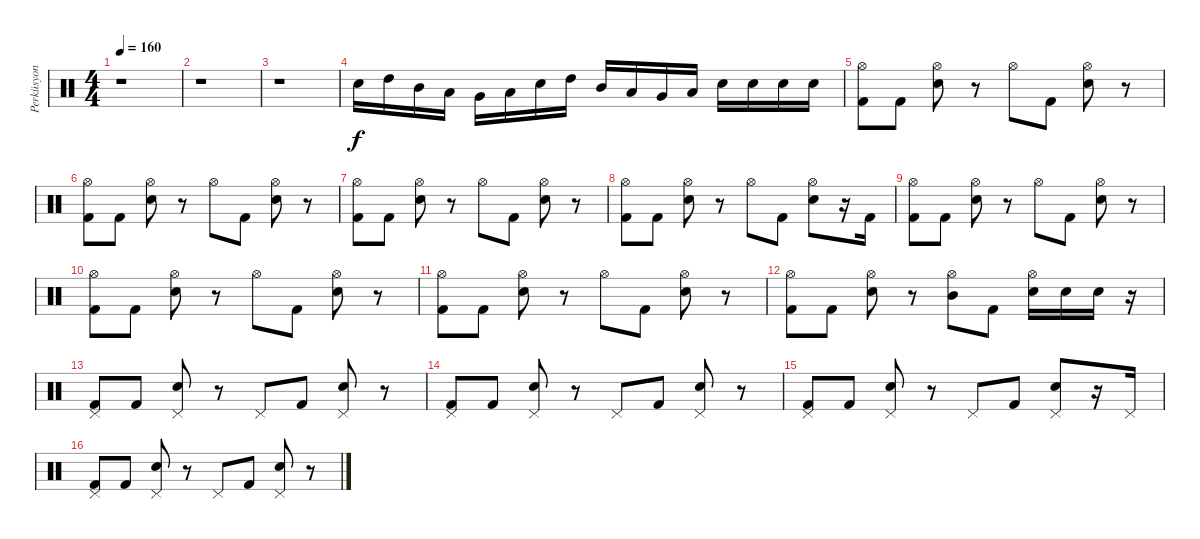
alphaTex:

\track ("Perküsyon" "Perküsyon") {instrument percussion}
\staff {score}
\articulation defaults
\ts (4 4)
\tempo 160
\clef neutral
\ks c
r.1{dy f} |
r.1 |
r.1 |
"Electric Snare (hit)".16 "High Tom (hit)".16 "Mid Tom (hit)".16 "Low Tom (hit)".16 "Very Low Tom (hit)".16 "Low Floor Tom (hit)".16 "Electric Snare (hit)".16 "High Tom (hit)".16 "Mid Tom (hit)".16 "Low Tom (hit)".16 "Very Low Tom (hit)".16 "Low Floor Tom (hit)".16 "Electric Snare (hit)".16 "Electric Snare (hit)".16 "Electric Snare (hit)".16 "Electric Snare (hit)".16 |
("Hi-Hat (open)" "Kick (hit) 2").8 "Kick (hit) 2".8 ("Hi-Hat (open)" "Electric Snare (hit)").8 r.8 "Hi-Hat (open)".8 "Kick (hit) 2".8 ("Hi-Hat (open)" "Electric Snare (hit)").8 r.8 |
("Hi-Hat (open)" "Kick (hit) 2").8 "Kick (hit) 2".8 ("Hi-Hat (open)" "Electric Snare (hit)").8 r.8 "Hi-Hat (open)".8 "Kick (hit) 2".8 ("Hi-Hat (open)" "Electric Snare (hit)").8 r.8 |
("Hi-Hat (open)" "Kick (hit) 2").8 "Kick (hit) 2".8 ("Hi-Hat (open)" "Electric Snare (hit)").8 r.8 "Hi-Hat (open)".8 "Kick (hit) 2".8 ("Hi-Hat (open)" "Electric Snare (hit)").8 r.8 |
("Hi-Hat (open)" "Kick (hit) 2").8 "Kick (hit) 2".8 ("Hi-Hat (open)" "Electric Snare (hit)").8 r.8 "Hi-Hat (open)".8 "Kick (hit) 2".8 ("Hi-Hat (open)" "Electric Snare (hit)").8 r.16 "Kick (hit) 2".16 |
("Hi-Hat (open)" "Kick (hit) 2").8 "Kick (hit) 2".8 ("Hi-Hat (open)" "Electric Snare (hit)").8 r.8 "Hi-Hat (open)".8 "Kick (hit) 2".8 ("Hi-Hat (open)" "Electric Snare (hit)").8 r.8 |
("Hi-Hat (open)" "Kick (hit) 2").8 "Kick (hit) 2".8 ("Hi-Hat (open)" "Electric Snare (hit)").8 r.8 "Hi-Hat (open)".8 "Kick (hit) 2".8 ("Hi-Hat (open)" "Electric Snare (hit)").8 r.8 |
("Hi-Hat (open)" "Kick (hit) 2").8 "Kick (hit) 2".8 ("Hi-Hat (open)" "Electric Snare (hit)").8 r.8 "Hi-Hat (open)".8 "Kick (hit) 2".8 ("Hi-Hat (open)" "Electric Snare (hit)").8 r.8 |
("Hi-Hat (open)" "Kick (hit) 2").8 "Kick (hit) 2".8 ("Hi-Hat (open)" "Electric Snare (hit)").8 r.8 ("Hi-Hat (open)" "Mid Tom (hit)").8 "Kick (hit) 2".8 ("Hi-Hat (open)" "Electric Snare (hit)").16 "Electric Snare (hit)".16 "Electric Snare (hit)".16 r.16 |
("Pedal Hi-Hat (hit)" "Kick (hit) 2").8 "Kick (hit) 2".8 ("Pedal Hi-Hat (hit)" "Electric Snare (hit)").8 r.8 "Pedal Hi-Hat (hit)".8 "Kick (hit) 2".8 ("Pedal Hi-Hat (hit)" "Electric Snare (hit)").8 r.8 |
("Pedal Hi-Hat (hit)" "Kick (hit) 2").8 "Kick (hit) 2".8 ("Pedal Hi-Hat (hit)" "Electric Snare (hit)").8 r.8 "Pedal Hi-Hat (hit)".8 "Kick (hit) 2".8 ("Pedal Hi-Hat (hit)" "Electric Snare (hit)").8 r.8 |
("Pedal Hi-Hat (hit)" "Kick (hit) 2").8 "Kick (hit) 2".8 ("Pedal Hi-Hat (hit)" "Electric Snare (hit)").8 r.8 "Pedal Hi-Hat (hit)".8 "Kick (hit) 2".8 ("Pedal Hi-Hat (hit)" "Electric Snare (hit)").8 r.16 "Pedal Hi-Hat (hit)".16 |
("Pedal Hi-Hat (hit)" "Kick (hit) 2").8 "Kick (hit) 2".8 ("Pedal Hi-Hat (hit)" "Electric Snare (hit)").8 r.8 "Pedal Hi-Hat (hit)".8 "Kick (hit) 2".8 ("Pedal Hi-Hat (hit)" "Electric Snare (hit)").8 r.8
